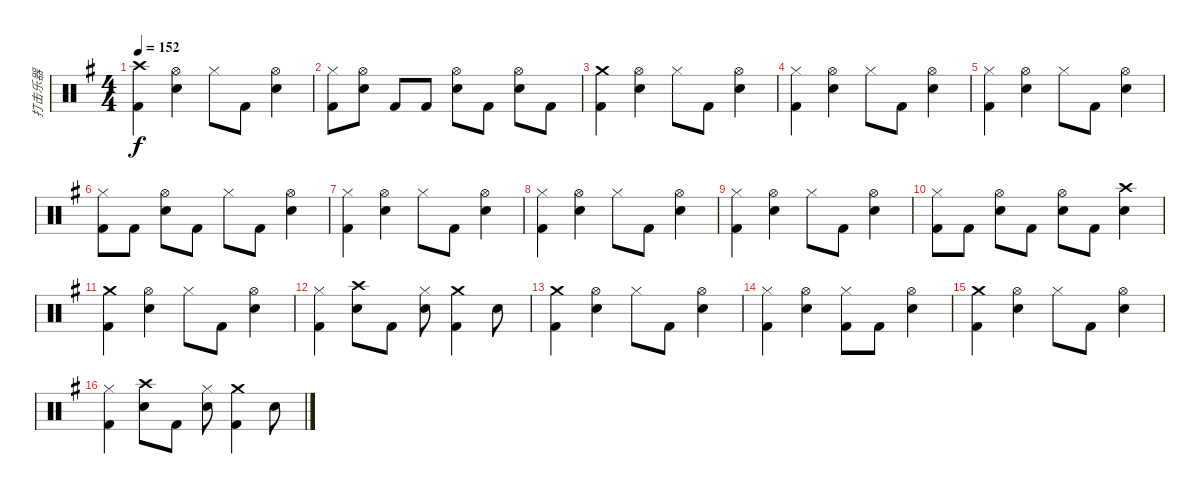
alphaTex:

\track ("打击乐器" "打击乐器") {instrument percussion}
\staff {score}
\articulation defaults
\ts (4 4)
\tempo 152
\clef neutral
\ks g
("Crash high (hit)" "Kick (hit) 2").4{dy f} ("Hi-Hat (open)" "Metronome (bell)").4 "Hi-Hat (closed)".8 "Kick (hit) 2".8 ("Hi-Hat (open)" "Metronome (bell)").4 |
("Hi-Hat (closed)" "Kick (hit) 2").8 ("Hi-Hat (open)" "Metronome (bell)").8 "Kick (hit) 2".8 "Kick (hit) 2".8 ("Hi-Hat (open)" "Metronome (bell)").8 "Kick (hit) 2".8 ("Hi-Hat (open)" "Metronome (bell)").8 "Kick (hit) 2".8 |
("Crash medium (hit)" "Kick (hit) 2").4 ("Hi-Hat (open)" "Metronome (bell)").4 "Hi-Hat (closed)".8 "Kick (hit) 2".8 ("Hi-Hat (open)" "Metronome (bell)").4 |
("Hi-Hat (closed)" "Kick (hit) 2").4 ("Hi-Hat (open)" "Metronome (bell)").4 "Hi-Hat (closed)".8 "Kick (hit) 2".8 ("Hi-Hat (open)" "Metronome (bell)").4 |
("Hi-Hat (closed)" "Kick (hit) 2").4 ("Hi-Hat (open)" "Metronome (bell)").4 "Hi-Hat (closed)".8 "Kick (hit) 2".8 ("Hi-Hat (open)" "Metronome (bell)").4 |
("Hi-Hat (closed)" "Kick (hit) 2").8 "Kick (hit) 2".8 ("Hi-Hat (open)" "Metronome (bell)").8 "Kick (hit) 2".8 "Hi-Hat (closed)".8 "Kick (hit) 2".8 ("Hi-Hat (open)" "Metronome (bell)").4 |
("Hi-Hat (closed)" "Kick (hit) 2").4 ("Hi-Hat (open)" "Metronome (bell)").4 "Hi-Hat (closed)".8 "Kick (hit) 2".8 ("Hi-Hat (open)" "Metronome (bell)").4 |
("Hi-Hat (closed)" "Kick (hit) 2").4 ("Hi-Hat (open)" "Metronome (bell)").4 "Hi-Hat (closed)".8 "Kick (hit) 2".8 ("Hi-Hat (open)" "Metronome (bell)").4 |
("Hi-Hat (closed)" "Kick (hit) 2").4 ("Hi-Hat (open)" "Metronome (bell)").4 "Hi-Hat (closed)".8 "Kick (hit) 2".8 ("Hi-Hat (open)" "Metronome (bell)").4 |
("Hi-Hat (closed)" "Kick (hit) 2").8 "Kick (hit) 2".8 ("Hi-Hat (open)" "Metronome (bell)").8 "Kick (hit) 2".8 ("Hi-Hat (open)" "Metronome (bell)").8 "Kick (hit) 2".8 ("Crash high (hit)" "Metronome (bell)").4 |
("Crash medium (hit)" "Kick (hit) 2").4 ("Hi-Hat (open)" "Metronome (bell)").4 "Hi-Hat (closed)".8 "Kick (hit) 2".8 ("Hi-Hat (open)" "Metronome (bell)").4 |
("Hi-Hat (closed)" "Kick (hit) 2").4 ("Crash high (hit)" "Metronome (bell)").8 "Kick (hit) 2".8 ("Hi-Hat (closed)" "Metronome (bell)").8 ("Crash medium (hit)" "Kick (hit) 2").4 "Metronome (bell)".8 |
("Crash medium (hit)" "Kick (hit) 2").4 ("Hi-Hat (open)" "Metronome (bell)").4 "Hi-Hat (closed)".8 "Kick (hit) 2".8 ("Hi-Hat (open)" "Metronome (bell)").4 |
("Hi-Hat (closed)" "Kick (hit) 2").4 ("Hi-Hat (open)" "Metronome (bell)").4 ("Hi-Hat (closed)" "Kick (hit) 2").8 "Kick (hit) 2".8 ("Hi-Hat (open)" "Metronome (bell)").4 |
("Crash medium (hit)" "Kick (hit) 2").4 ("Hi-Hat (open)" "Metronome (bell)").4 "Hi-Hat (closed)".8 "Kick (hit) 2".8 ("Hi-Hat (open)" "Metronome (bell)").4 |
("Hi-Hat (closed)" "Kick (hit) 2").4 ("Crash high (hit)" "Metronome (bell)").8 "Kick (hit) 2".8 ("Hi-Hat (closed)" "Metronome (bell)").8 ("Crash medium (hit)" "Kick (hit) 2").4 "Metronome (bell)".8
